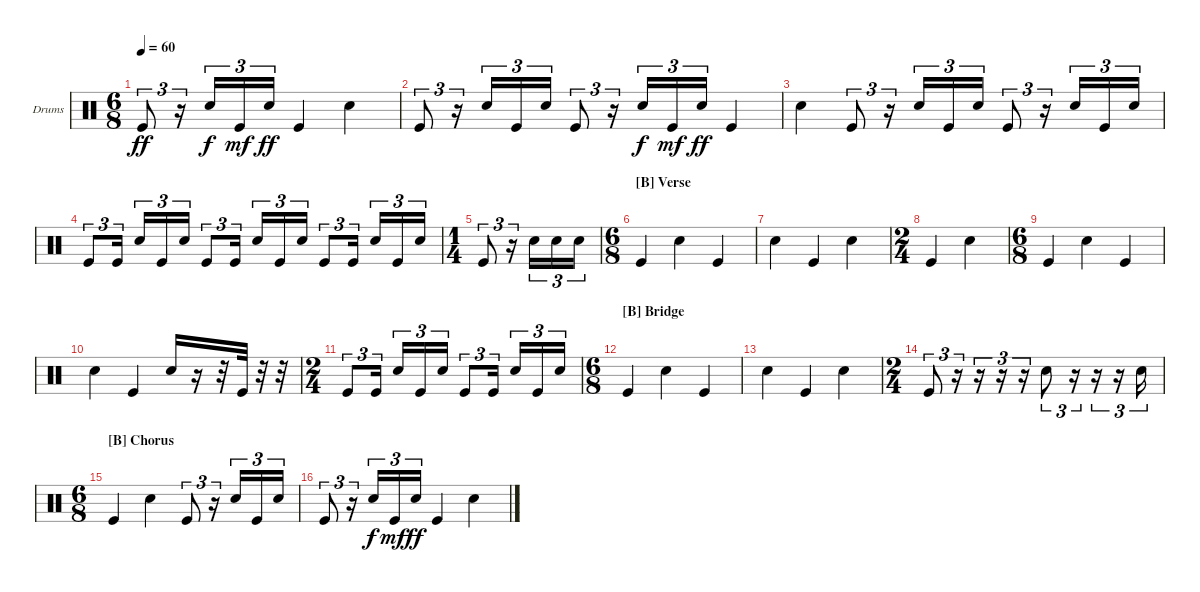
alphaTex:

\defaultSystemsLayout 4
\bracketExtendMode groupsimilarinstruments
\firstSystemTrackNameOrientation horizontal
\otherSystemsTrackNameOrientation horizontal
\track ("Drumkit" "Drums") {instrument percussion}
\staff {score}
\articulation defaults
\ts (6 8)
\tempo 60
\clef neutral
\ks c "Kick (hit)".8{tu (3 2) dy ff}
r.16{tu (3 2)} "Snare (hit) 2".16{tu (3 2) dy f} "Kick (hit)".16{tu (3 2) dy mf} "Snare (hit) 2".16{tu (3 2) dy ff} "Kick (hit)".4 "Snare (hit) 2".4 |
"Kick (hit)".8{tu (3 2)} r.16{tu (3 2)} "Snare (hit) 2".16{tu (3 2)} "Kick (hit)".16{tu (3 2)} "Snare (hit) 2".16{tu (3 2)} "Kick (hit)".8{tu (3 2)} r.16{tu (3 2)} "Snare (hit) 2".16{tu (3 2) dy f} "Kick (hit)".16{tu (3 2) dy mf} "Snare (hit) 2".16{tu (3 2) dy ff} "Kick (hit)".4 |
"Snare (hit) 2".4 "Kick (hit)".8{tu (3 2)} r.16{tu (3 2)} "Snare (hit) 2".16{tu (3 2)} "Kick (hit)".16{tu (3 2)} "Snare (hit) 2".16{tu (3 2)} "Kick (hit)".8{tu (3 2)} r.16{tu (3 2)} "Snare (hit) 2".16{tu (3 2)} "Kick (hit)".16{tu (3 2)} "Snare (hit) 2".16{tu (3 2)} |
"Kick (hit)".8{tu (3 2)} "Kick (hit)".16{tu (3 2)} "Snare (hit) 2".16{tu (3 2)} "Kick (hit)".16{tu (3 2)} "Snare (hit) 2".16{tu (3 2)} "Kick (hit)".8{tu (3 2)} "Kick (hit)".16{tu (3 2)} "Snare (hit) 2".16{tu (3 2)} "Kick (hit)".16{tu (3 2)} "Snare (hit) 2".16{tu (3 2)} "Kick (hit)".8{tu (3 2)} "Kick (hit)".16{tu (3 2)} "Snare (hit) 2".16{tu (3 2)} "Kick (hit)".16{tu (3 2)} "Snare (hit) 2".16{tu (3 2)} |
\ts (1 4)
"Kick (hit)".8{tu (3 2)} r.16{tu (3 2)} "Snare (hit) 2".16{tu (3 2)} "Snare (hit) 2".16{tu (3 2)} "Snare (hit) 2".16{tu (3 2)} |
\ts (6 8)
\section ("B" "Verse")
"Kick (hit)".4 "Snare (hit) 2".4 "Kick (hit)".4 |
"Snare (hit) 2".4 "Kick (hit)".4 "Snare (hit) 2".4 |
\ts (2 4)
"Kick (hit)".4 "Snare (hit) 2".4 |
\ts (6 8)
"Kick (hit)".4 "Snare (hit) 2".4 "Kick (hit)".4 |
"Snare (hit) 2".4 "Kick (hit)".4 "Snare (hit) 2".16 r.16 r.32 "Kick (hit)".32 r.32 r.32 |
\ts (2 4)
"Kick (hit)".8{tu (3 2)} "Kick (hit)".16{tu (3 2)} "Snare (hit) 2".16{tu (3 2)} "Kick (hit)".16{tu (3 2)} "Snare (hit) 2".16{tu (3 2)} "Kick (hit)".8{tu (3 2)} "Kick (hit)".16{tu (3 2)} "Snare (hit) 2".16{tu (3 2)} "Kick (hit)".16{tu (3 2)} "Snare (hit) 2".16{tu (3 2)} |
\ts (6 8)
\section ("B" "Bridge")
"Kick (hit)".4 "Snare (hit) 2".4 "Kick (hit)".4 |
"Snare (hit) 2".4 "Kick (hit)".4 "Snare (hit) 2".4 |
\ts (2 4)
"Kick (hit)".8{tu (3 2)} r.16{tu (3 2)} r.16{tu (3 2)} r.16{tu (3 2)} r.16{tu (3 2)} "Snare (hit) 2".8{tu (3 2)} r.16{tu (3 2)} r.16{tu (3 2)} r.16{tu (3 2)} "Snare (hit) 2".16{tu (3 2)} |
\ts (6 8)
\section ("B" "Chorus")
"Kick (hit)".4 "Snare (hit) 2".4 "Kick (hit)".8{tu (3 2)} r.16{tu (3 2)} "Snare (hit) 2".16{tu (3 2)} "Kick (hit)".16{tu (3 2)} "Snare (hit) 2".16{tu (3 2)} |
"Kick (hit)".8{tu (3 2)} r.16{tu (3 2)} "Snare (hit) 2".16{tu (3 2) dy f} "Kick (hit)".16{tu (3 2) dy mf} "Snare (hit) 2".16{tu (3 2) dy ff} "Kick (hit)".4 "Snare (hit) 2".4
